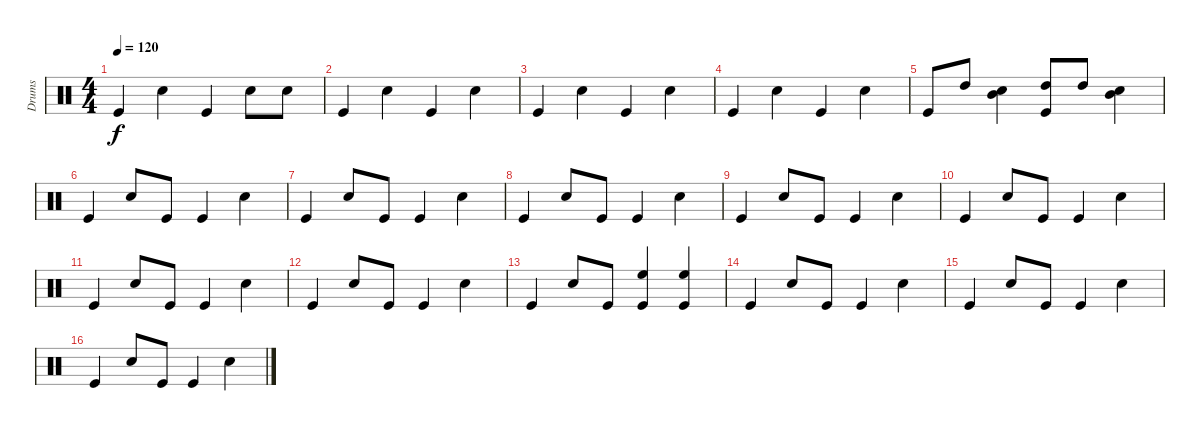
\track ("Drums" "Drums") {instrument percussion}
\staff {score}
\articulation defaults
\ts (4 4)
\tempo 120
\clef neutral
\ks c "Kick (hit)".4{dy f} "Snare (hit) 2".4 "Kick (hit)".4 "Snare (hit) 2".8 "Snare (hit) 2".8
|
"Kick (hit)".4 "Snare (hit) 2".4 "Kick (hit)".4 "Snare (hit) 2".4 |
"Kick (hit)".4 "Snare (hit) 2".4 "Kick (hit)".4 "Snare (hit) 2".4 |
"Kick (hit)".4 "Snare (hit) 2".4 "Kick (hit)".4 "Snare (hit) 2".4 |
"Kick (hit)".8 "High Tom (hit)".8 ("Mid Tom (hit)" "Snare (hit) 2").4 ("High Tom (hit)" "Kick (hit)").8 "High Tom (hit)".8 ("Mid Tom (hit)" "Snare (hit) 2").4 |
"Kick (hit)".4 "Snare (hit) 2".8 "Kick (hit)".8 "Kick (hit)".4 "Snare (hit) 2".4 |
"Kick (hit)".4 "Snare (hit) 2".8 "Kick (hit)".8 "Kick (hit)".4 "Snare (hit) 2".4 |
"Kick (hit)".4 "Snare (hit) 2".8 "Kick (hit)".8 "Kick (hit)".4 "Snare (hit) 2".4 |
"Kick (hit)".4 "Snare (hit) 2".8 "Kick (hit)".8 "Kick (hit)".4 "Snare (hit) 2".4 |
"Kick (hit)".4 "Snare (hit) 2".8 "Kick (hit)".8 "Kick (hit)".4 "Snare (hit) 2".4 |
"Kick (hit)".4 "Snare (hit) 2".8 "Kick (hit)".8 "Kick (hit)".4 "Snare (hit) 2".4 |
"Kick (hit)".4 "Snare (hit) 2".8 "Kick (hit)".8 "Kick (hit)".4 "Snare (hit) 2".4 |
"Kick (hit)".4 "Snare (hit) 2".8 "Kick (hit)".8 ("High Floor Tom (hit)" "Kick (hit)").4 ("High Floor Tom (hit)" "Kick (hit)").4 |
"Kick (hit)".4 "Snare (hit) 2".8 "Kick (hit)".8 "Kick (hit)".4 "Snare (hit) 2".4 |
"Kick (hit)".4 "Snare (hit) 2".8 "Kick (hit)".8 "Kick (hit)".4 "Snare (hit) 2".4 |
"Kick (hit)".4 "Snare (hit) 2".8 "Kick (hit)".8 "Kick (hit)".4 "Snare (hit) 2".4
